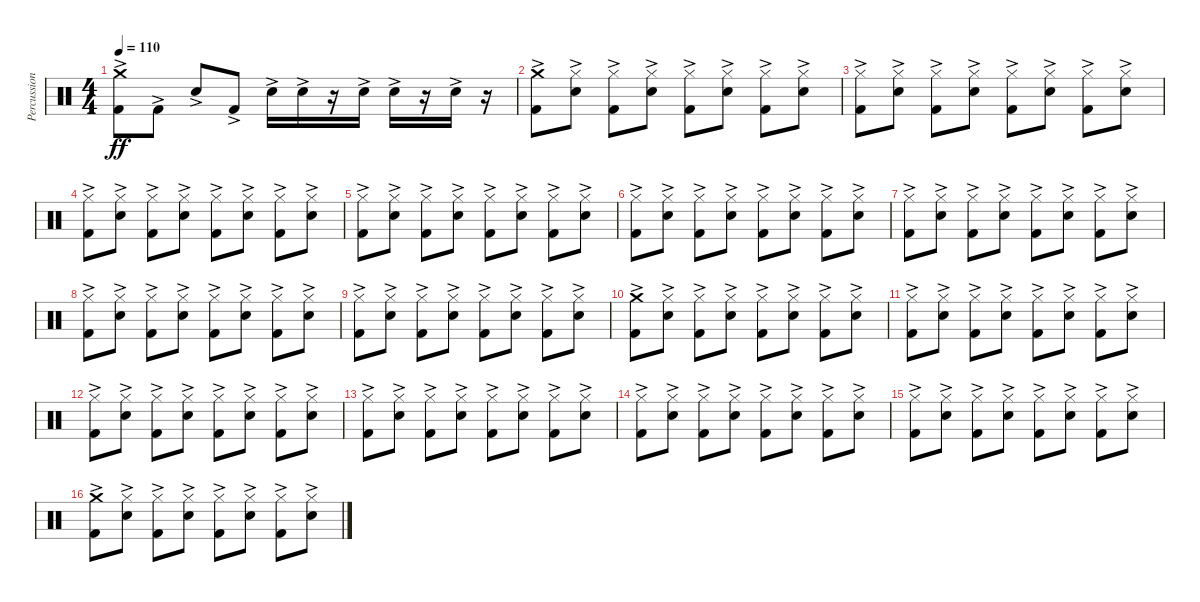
\track ("Percussion" "Percussion") {instrument percussion}
\staff {score}
\articulation defaults
\ts (4 4)
\tempo 110
\clef neutral
\ks c
("Crash medium (hit)"{ac} "Kick (hit) 2"{ac}).8{dy ff} "Kick (hit) 2"{ac}.8 "Snare (hit) 2"{ac}.8 "Kick (hit) 2"{ac}.8 "Snare (hit) 2"{ac}.16 "Snare (hit) 2"{ac}.16 r.16 "Snare (hit) 2"{ac}.16 "Snare (hit) 2"{ac}.16 r.16 "Snare (hit) 2"{ac}.16 r.16 |
("Crash medium (hit)"{ac} "Kick (hit) 2"{ac}).8 ("Hi-Hat (closed)"{ac} "Snare (hit) 2"{ac}).8 ("Hi-Hat (closed)"{ac} "Kick (hit) 2"{ac}).8 ("Hi-Hat (closed)"{ac} "Snare (hit) 2"{ac}).8 ("Hi-Hat (closed)"{ac} "Kick (hit) 2"{ac}).8 ("Hi-Hat (closed)"{ac} "Snare (hit) 2"{ac}).8 ("Hi-Hat (closed)"{ac} "Kick (hit) 2"{ac}).8 ("Hi-Hat (closed)"{ac} "Snare (hit) 2"{ac}).8 |
("Hi-Hat (closed)"{ac} "Kick (hit) 2"{ac}).8 ("Hi-Hat (closed)"{ac} "Snare (hit) 2"{ac}).8 ("Hi-Hat (closed)"{ac} "Kick (hit) 2"{ac}).8 ("Hi-Hat (closed)"{ac} "Snare (hit) 2"{ac}).8 ("Hi-Hat (closed)"{ac} "Kick (hit) 2"{ac}).8 ("Hi-Hat (closed)"{ac} "Snare (hit) 2"{ac}).8 ("Hi-Hat (closed)"{ac} "Kick (hit) 2"{ac}).8 ("Hi-Hat (closed)"{ac} "Snare (hit) 2"{ac}).8 |
("Hi-Hat (closed)"{ac} "Kick (hit) 2"{ac}).8 ("Hi-Hat (closed)"{ac} "Snare (hit) 2"{ac}).8 ("Hi-Hat (closed)"{ac} "Kick (hit) 2"{ac}).8 ("Hi-Hat (closed)"{ac} "Snare (hit) 2"{ac}).8 ("Hi-Hat (closed)"{ac} "Kick (hit) 2"{ac}).8 ("Hi-Hat (closed)"{ac} "Snare (hit) 2"{ac}).8 ("Hi-Hat (closed)"{ac} "Kick (hit) 2"{ac}).8 ("Hi-Hat (closed)"{ac} "Snare (hit) 2"{ac}).8 |
("Hi-Hat (closed)"{ac} "Kick (hit) 2"{ac}).8 ("Hi-Hat (closed)"{ac} "Snare (hit) 2"{ac}).8 ("Hi-Hat (closed)"{ac} "Kick (hit) 2"{ac}).8 ("Hi-Hat (closed)"{ac} "Snare (hit) 2"{ac}).8 ("Hi-Hat (closed)"{ac} "Kick (hit) 2"{ac}).8 ("Hi-Hat (closed)"{ac} "Snare (hit) 2"{ac}).8 ("Hi-Hat (closed)"{ac} "Kick (hit) 2"{ac}).8 ("Hi-Hat (closed)"{ac} "Snare (hit) 2"{ac}).8 |
("Hi-Hat (closed)"{ac} "Kick (hit) 2"{ac}).8 ("Hi-Hat (closed)"{ac} "Snare (hit) 2"{ac}).8 ("Hi-Hat (closed)"{ac} "Kick (hit) 2"{ac}).8 ("Hi-Hat (closed)"{ac} "Snare (hit) 2"{ac}).8 ("Hi-Hat (closed)"{ac} "Kick (hit) 2"{ac}).8 ("Hi-Hat (closed)"{ac} "Snare (hit) 2"{ac}).8 ("Hi-Hat (closed)"{ac} "Kick (hit) 2"{ac}).8 ("Hi-Hat (closed)"{ac} "Snare (hit) 2"{ac}).8 |
("Hi-Hat (closed)"{ac} "Kick (hit) 2"{ac}).8 ("Hi-Hat (closed)"{ac} "Snare (hit) 2"{ac}).8 ("Hi-Hat (closed)"{ac} "Kick (hit) 2"{ac}).8 ("Hi-Hat (closed)"{ac} "Snare (hit) 2"{ac}).8 ("Hi-Hat (closed)"{ac} "Kick (hit) 2"{ac}).8 ("Hi-Hat (closed)"{ac} "Snare (hit) 2"{ac}).8 ("Hi-Hat (closed)"{ac} "Kick (hit) 2"{ac}).8 ("Hi-Hat (closed)"{ac} "Snare (hit) 2"{ac}).8 |
("Hi-Hat (closed)"{ac} "Kick (hit) 2"{ac}).8 ("Hi-Hat (closed)"{ac} "Snare (hit) 2"{ac}).8 ("Hi-Hat (closed)"{ac} "Kick (hit) 2"{ac}).8 ("Hi-Hat (closed)"{ac} "Snare (hit) 2"{ac}).8 ("Hi-Hat (closed)"{ac} "Kick (hit) 2"{ac}).8 ("Hi-Hat (closed)"{ac} "Snare (hit) 2"{ac}).8 ("Hi-Hat (closed)"{ac} "Kick (hit) 2"{ac}).8 ("Hi-Hat (closed)"{ac} "Snare (hit) 2"{ac}).8 |
("Hi-Hat (closed)"{ac} "Kick (hit) 2"{ac}).8 ("Hi-Hat (closed)"{ac} "Snare (hit) 2"{ac}).8 ("Hi-Hat (closed)"{ac} "Kick (hit) 2"{ac}).8 ("Hi-Hat (closed)"{ac} "Snare (hit) 2"{ac}).8 ("Hi-Hat (closed)"{ac} "Kick (hit) 2"{ac}).8 ("Hi-Hat (closed)"{ac} "Snare (hit) 2"{ac}).8 ("Hi-Hat (closed)"{ac} "Kick (hit) 2"{ac}).8 ("Hi-Hat (closed)"{ac} "Snare (hit) 2"{ac}).8 |
("Crash medium (hit)"{ac} "Kick (hit) 2"{ac}).8 ("Hi-Hat (closed)"{ac} "Snare (hit) 2"{ac}).8 ("Hi-Hat (closed)"{ac} "Kick (hit) 2"{ac}).8 ("Hi-Hat (closed)"{ac} "Snare (hit) 2"{ac}).8 ("Hi-Hat (closed)"{ac} "Kick (hit) 2"{ac}).8 ("Hi-Hat (closed)"{ac} "Snare (hit) 2"{ac}).8 ("Hi-Hat (closed)"{ac} "Kick (hit) 2"{ac}).8 ("Hi-Hat (closed)"{ac} "Snare (hit) 2"{ac}).8 |
("Hi-Hat (closed)"{ac} "Kick (hit) 2"{ac}).8 ("Hi-Hat (closed)"{ac} "Snare (hit) 2"{ac}).8 ("Hi-Hat (closed)"{ac} "Kick (hit) 2"{ac}).8 ("Hi-Hat (closed)"{ac} "Snare (hit) 2"{ac}).8 ("Hi-Hat (closed)"{ac} "Kick (hit) 2"{ac}).8 ("Hi-Hat (closed)"{ac} "Snare (hit) 2"{ac}).8 ("Hi-Hat (closed)"{ac} "Kick (hit) 2"{ac}).8 ("Hi-Hat (closed)"{ac} "Snare (hit) 2"{ac}).8 |
("Hi-Hat (closed)"{ac} "Kick (hit) 2"{ac}).8 ("Hi-Hat (closed)"{ac} "Snare (hit) 2"{ac}).8 ("Hi-Hat (closed)"{ac} "Kick (hit) 2"{ac}).8 ("Hi-Hat (closed)"{ac} "Snare (hit) 2"{ac}).8 ("Hi-Hat (closed)"{ac} "Kick (hit) 2"{ac}).8 ("Hi-Hat (closed)"{ac} "Snare (hit) 2"{ac}).8 ("Hi-Hat (closed)"{ac} "Kick (hit) 2"{ac}).8 ("Hi-Hat (closed)"{ac} "Snare (hit) 2"{ac}).8 |
("Hi-Hat (closed)"{ac} "Kick (hit) 2"{ac}).8 ("Hi-Hat (closed)"{ac} "Snare (hit) 2"{ac}).8 ("Hi-Hat (closed)"{ac} "Kick (hit) 2"{ac}).8 ("Hi-Hat (closed)"{ac} "Snare (hit) 2"{ac}).8 ("Hi-Hat (closed)"{ac} "Kick (hit) 2"{ac}).8 ("Hi-Hat (closed)"{ac} "Snare (hit) 2"{ac}).8 ("Hi-Hat (closed)"{ac} "Kick (hit) 2"{ac}).8 ("Hi-Hat (closed)"{ac} "Snare (hit) 2"{ac}).8 |
("Hi-Hat (closed)"{ac} "Kick (hit) 2"{ac}).8 ("Hi-Hat (closed)"{ac} "Snare (hit) 2"{ac}).8 ("Hi-Hat (closed)"{ac} "Kick (hit) 2"{ac}).8 ("Hi-Hat (closed)"{ac} "Snare (hit) 2"{ac}).8 ("Hi-Hat (closed)"{ac} "Kick (hit) 2"{ac}).8 ("Hi-Hat (closed)"{ac} "Snare (hit) 2"{ac}).8 ("Hi-Hat (closed)"{ac} "Kick (hit) 2"{ac}).8 ("Hi-Hat (closed)"{ac} "Snare (hit) 2"{ac}).8 |
("Hi-Hat (closed)"{ac} "Kick (hit) 2"{ac}).8 ("Hi-Hat (closed)"{ac} "Snare (hit) 2"{ac}).8 ("Hi-Hat (closed)"{ac} "Kick (hit) 2"{ac}).8 ("Hi-Hat (closed)"{ac} "Snare (hit) 2"{ac}).8 ("Hi-Hat (closed)"{ac} "Kick (hit) 2"{ac}).8 ("Hi-Hat (closed)"{ac} "Snare (hit) 2"{ac}).8 ("Hi-Hat (closed)"{ac} "Kick (hit) 2"{ac}).8 ("Hi-Hat (closed)"{ac} "Snare (hit) 2"{ac}).8 |
("Crash medium (hit)"{ac} "Kick (hit) 2"{ac}).8 ("Hi-Hat (closed)"{ac} "Snare (hit) 2"{ac}).8 ("Hi-Hat (closed)"{ac} "Kick (hit) 2"{ac}).8 ("Hi-Hat (closed)"{ac} "Snare (hit) 2"{ac}).8 ("Hi-Hat (closed)"{ac} "Kick (hit) 2"{ac}).8 ("Hi-Hat (closed)"{ac} "Snare (hit) 2"{ac}).8 ("Hi-Hat (closed)"{ac} "Kick (hit) 2"{ac}).8 ("Hi-Hat (closed)"{ac} "Snare (hit) 2"{ac}).8
